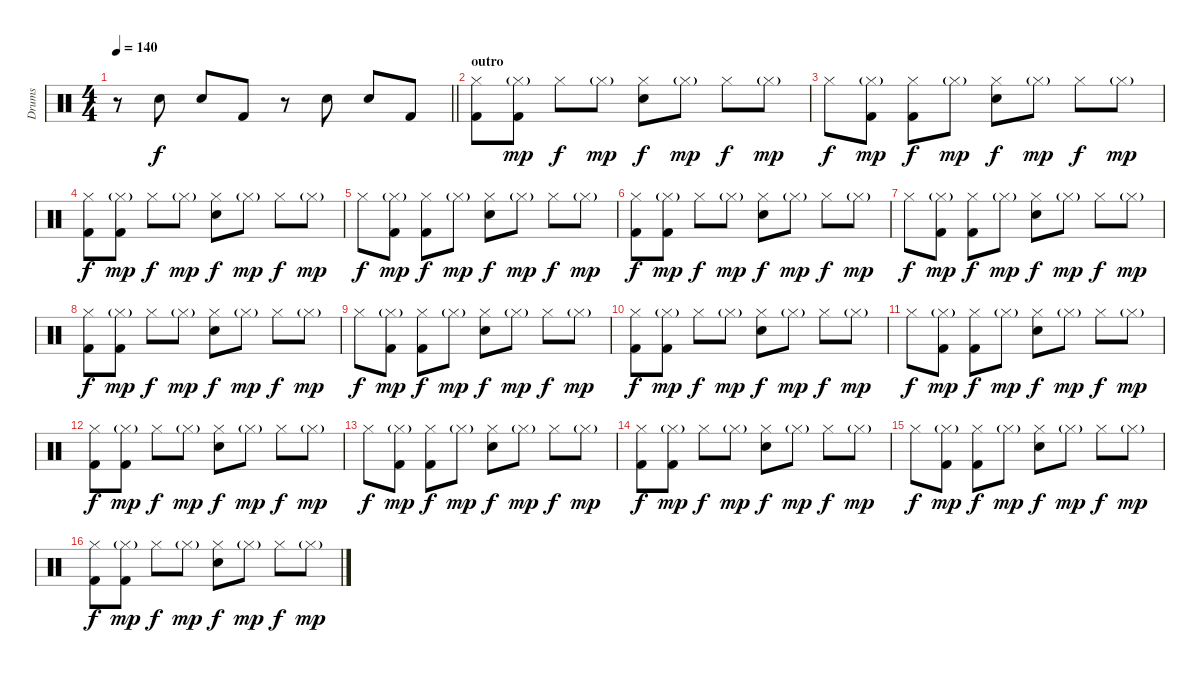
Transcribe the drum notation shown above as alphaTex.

\track ("Drums" "Drums") {instrument percussion}
\staff {score}
\articulation defaults
\ts (4 4)
\tempo 140
\clef neutral
\barLineRight lightlight
\ks c
r.8{dy f} "Electric Snare (hit)".8 "Electric Snare (hit)".8 "Kick (hit) 2".8 r.8 "Electric Snare (hit)".8 "Electric Snare (hit)".8 "Kick (hit) 2".8 |
\section ("" "outro")
("Hi-Hat (closed)" "Kick (hit) 2").8 ("Hi-Hat (closed)"{g} "Kick (hit) 2").8{dy mp} "Hi-Hat (closed)".8{dy f} "Hi-Hat (closed)"{g}.8{dy mp} ("Hi-Hat (closed)" "Electric Snare (hit)").8{dy f} "Hi-Hat (closed)"{g}.8{dy mp} "Hi-Hat (closed)".8{dy f} "Hi-Hat (closed)"{g}.8{dy mp} |
"Hi-Hat (closed)".8{dy f} ("Hi-Hat (closed)"{g} "Kick (hit) 2").8{dy mp} ("Hi-Hat (closed)" "Kick (hit) 2").8{dy f} "Hi-Hat (closed)"{g}.8{dy mp} ("Hi-Hat (closed)" "Electric Snare (hit)").8{dy f} "Hi-Hat (closed)"{g}.8{dy mp} "Hi-Hat (closed)".8{dy f} "Hi-Hat (closed)"{g}.8{dy mp} |
("Hi-Hat (closed)" "Kick (hit) 2").8{dy f} ("Hi-Hat (closed)"{g} "Kick (hit) 2").8{dy mp} "Hi-Hat (closed)".8{dy f} "Hi-Hat (closed)"{g}.8{dy mp} ("Hi-Hat (closed)" "Electric Snare (hit)").8{dy f} "Hi-Hat (closed)"{g}.8{dy mp} "Hi-Hat (closed)".8{dy f} "Hi-Hat (closed)"{g}.8{dy mp} |
"Hi-Hat (closed)".8{dy f} ("Hi-Hat (closed)"{g} "Kick (hit) 2").8{dy mp} ("Hi-Hat (closed)" "Kick (hit) 2").8{dy f} "Hi-Hat (closed)"{g}.8{dy mp} ("Hi-Hat (closed)" "Electric Snare (hit)").8{dy f} "Hi-Hat (closed)"{g}.8{dy mp} "Hi-Hat (closed)".8{dy f} "Hi-Hat (closed)"{g}.8{dy mp} |
("Hi-Hat (closed)" "Kick (hit) 2").8{dy f} ("Hi-Hat (closed)"{g} "Kick (hit) 2").8{dy mp} "Hi-Hat (closed)".8{dy f} "Hi-Hat (closed)"{g}.8{dy mp} ("Hi-Hat (closed)" "Electric Snare (hit)").8{dy f} "Hi-Hat (closed)"{g}.8{dy mp} "Hi-Hat (closed)".8{dy f} "Hi-Hat (closed)"{g}.8{dy mp} |
"Hi-Hat (closed)".8{dy f} ("Hi-Hat (closed)"{g} "Kick (hit) 2").8{dy mp} ("Hi-Hat (closed)" "Kick (hit) 2").8{dy f} "Hi-Hat (closed)"{g}.8{dy mp} ("Hi-Hat (closed)" "Electric Snare (hit)").8{dy f} "Hi-Hat (closed)"{g}.8{dy mp} "Hi-Hat (closed)".8{dy f} "Hi-Hat (closed)"{g}.8{dy mp} |
("Hi-Hat (closed)" "Kick (hit) 2").8{dy f} ("Hi-Hat (closed)"{g} "Kick (hit) 2").8{dy mp} "Hi-Hat (closed)".8{dy f} "Hi-Hat (closed)"{g}.8{dy mp} ("Hi-Hat (closed)" "Electric Snare (hit)").8{dy f} "Hi-Hat (closed)"{g}.8{dy mp} "Hi-Hat (closed)".8{dy f} "Hi-Hat (closed)"{g}.8{dy mp} |
"Hi-Hat (closed)".8{dy f} ("Hi-Hat (closed)"{g} "Kick (hit) 2").8{dy mp} ("Hi-Hat (closed)" "Kick (hit) 2").8{dy f} "Hi-Hat (closed)"{g}.8{dy mp} ("Hi-Hat (closed)" "Electric Snare (hit)").8{dy f} "Hi-Hat (closed)"{g}.8{dy mp} "Hi-Hat (closed)".8{dy f} "Hi-Hat (closed)"{g}.8{dy mp} |
("Hi-Hat (closed)" "Kick (hit) 2").8{dy f} ("Hi-Hat (closed)"{g} "Kick (hit) 2").8{dy mp} "Hi-Hat (closed)".8{dy f} "Hi-Hat (closed)"{g}.8{dy mp} ("Hi-Hat (closed)" "Electric Snare (hit)").8{dy f} "Hi-Hat (closed)"{g}.8{dy mp} "Hi-Hat (closed)".8{dy f} "Hi-Hat (closed)"{g}.8{dy mp} |
"Hi-Hat (closed)".8{dy f} ("Hi-Hat (closed)"{g} "Kick (hit) 2").8{dy mp} ("Hi-Hat (closed)" "Kick (hit) 2").8{dy f} "Hi-Hat (closed)"{g}.8{dy mp} ("Hi-Hat (closed)" "Electric Snare (hit)").8{dy f} "Hi-Hat (closed)"{g}.8{dy mp} "Hi-Hat (closed)".8{dy f} "Hi-Hat (closed)"{g}.8{dy mp} |
("Hi-Hat (closed)" "Kick (hit) 2").8{dy f} ("Hi-Hat (closed)"{g} "Kick (hit) 2").8{dy mp} "Hi-Hat (closed)".8{dy f} "Hi-Hat (closed)"{g}.8{dy mp} ("Hi-Hat (closed)" "Electric Snare (hit)").8{dy f} "Hi-Hat (closed)"{g}.8{dy mp} "Hi-Hat (closed)".8{dy f} "Hi-Hat (closed)"{g}.8{dy mp} |
"Hi-Hat (closed)".8{dy f} ("Hi-Hat (closed)"{g} "Kick (hit) 2").8{dy mp} ("Hi-Hat (closed)" "Kick (hit) 2").8{dy f} "Hi-Hat (closed)"{g}.8{dy mp} ("Hi-Hat (closed)" "Electric Snare (hit)").8{dy f} "Hi-Hat (closed)"{g}.8{dy mp} "Hi-Hat (closed)".8{dy f} "Hi-Hat (closed)"{g}.8{dy mp} |
("Hi-Hat (closed)" "Kick (hit) 2").8{dy f} ("Hi-Hat (closed)"{g} "Kick (hit) 2").8{dy mp} "Hi-Hat (closed)".8{dy f} "Hi-Hat (closed)"{g}.8{dy mp} ("Hi-Hat (closed)" "Electric Snare (hit)").8{dy f} "Hi-Hat (closed)"{g}.8{dy mp} "Hi-Hat (closed)".8{dy f} "Hi-Hat (closed)"{g}.8{dy mp} |
"Hi-Hat (closed)".8{dy f} ("Hi-Hat (closed)"{g} "Kick (hit) 2").8{dy mp} ("Hi-Hat (closed)" "Kick (hit) 2").8{dy f} "Hi-Hat (closed)"{g}.8{dy mp} ("Hi-Hat (closed)" "Electric Snare (hit)").8{dy f} "Hi-Hat (closed)"{g}.8{dy mp} "Hi-Hat (closed)".8{dy f} "Hi-Hat (closed)"{g}.8{dy mp} |
("Hi-Hat (closed)" "Kick (hit) 2").8{dy f} ("Hi-Hat (closed)"{g} "Kick (hit) 2").8{dy mp} "Hi-Hat (closed)".8{dy f} "Hi-Hat (closed)"{g}.8{dy mp} ("Hi-Hat (closed)" "Electric Snare (hit)").8{dy f} "Hi-Hat (closed)"{g}.8{dy mp} "Hi-Hat (closed)".8{dy f} "Hi-Hat (closed)"{g}.8{dy mp}
